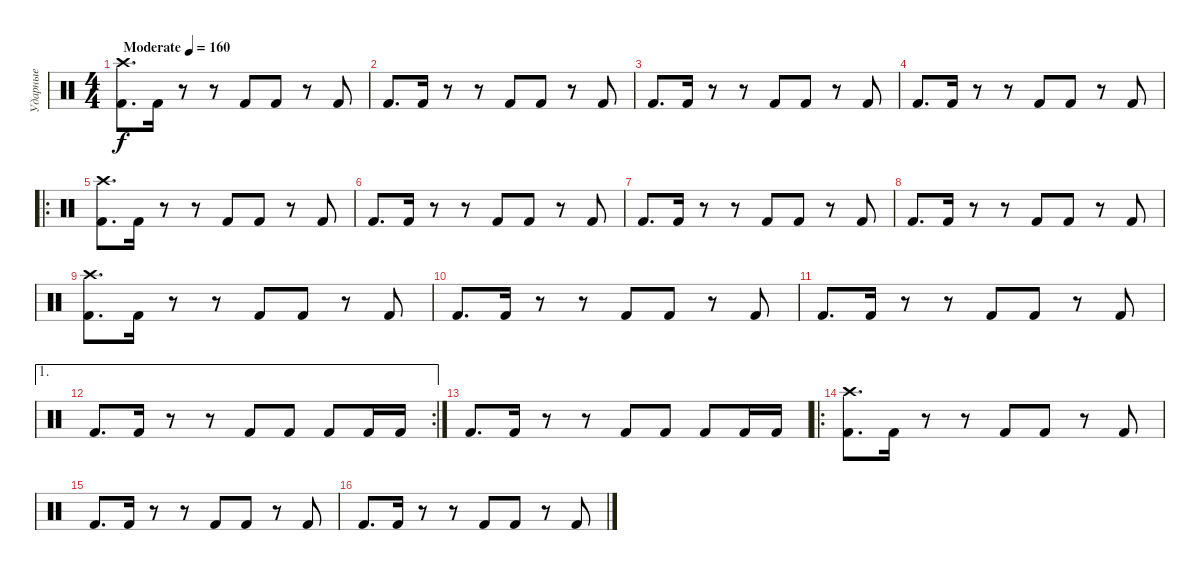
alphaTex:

\track ("Ударные" "Ударные") {instrument percussion}
\staff {score}
\articulation defaults
\ts (4 4)
\tempo (160 "Moderate")
\clef neutral
\ks c
("Kick (hit) 2" "Crash high (hit)").8{d dy f} "Kick (hit) 2".16 r.8 r.8 "Kick (hit) 2".8 "Kick (hit) 2".8 r.8 "Kick (hit) 2".8 |
"Kick (hit) 2".8{d} "Kick (hit) 2".16 r.8 r.8 "Kick (hit) 2".8 "Kick (hit) 2".8 r.8 "Kick (hit) 2".8 |
"Kick (hit) 2".8{d} "Kick (hit) 2".16 r.8 r.8 "Kick (hit) 2".8 "Kick (hit) 2".8 r.8 "Kick (hit) 2".8 |
"Kick (hit) 2".8{d} "Kick (hit) 2".16 r.8 r.8 "Kick (hit) 2".8 "Kick (hit) 2".8 r.8 "Kick (hit) 2".8 |
\ro
("Kick (hit) 2" "Crash high (hit)").8{d} "Kick (hit) 2".16 r.8 r.8 "Kick (hit) 2".8 "Kick (hit) 2".8 r.8 "Kick (hit) 2".8 |
"Kick (hit) 2".8{d} "Kick (hit) 2".16 r.8 r.8 "Kick (hit) 2".8 "Kick (hit) 2".8 r.8 "Kick (hit) 2".8 |
"Kick (hit) 2".8{d} "Kick (hit) 2".16 r.8 r.8 "Kick (hit) 2".8 "Kick (hit) 2".8 r.8 "Kick (hit) 2".8 |
"Kick (hit) 2".8{d} "Kick (hit) 2".16 r.8 r.8 "Kick (hit) 2".8 "Kick (hit) 2".8 r.8 "Kick (hit) 2".8 |
("Kick (hit) 2" "Crash high (hit)").8{d} "Kick (hit) 2".16 r.8 r.8 "Kick (hit) 2".8 "Kick (hit) 2".8 r.8 "Kick (hit) 2".8 |
"Kick (hit) 2".8{d} "Kick (hit) 2".16 r.8 r.8 "Kick (hit) 2".8 "Kick (hit) 2".8 r.8 "Kick (hit) 2".8 |
"Kick (hit) 2".8{d} "Kick (hit) 2".16 r.8 r.8 "Kick (hit) 2".8 "Kick (hit) 2".8 r.8 "Kick (hit) 2".8 |
\ae 1
\rc 2 "Kick (hit) 2".8{d} "Kick (hit) 2".16
r.8 r.8 "Kick (hit) 2".8 "Kick (hit) 2".8 "Kick (hit) 2".8 "Kick (hit) 2".16 "Kick (hit) 2".16 |
"Kick (hit) 2".8{d} "Kick (hit) 2".16 r.8 r.8 "Kick (hit) 2".8 "Kick (hit) 2".8 "Kick (hit) 2".8 "Kick (hit) 2".16 "Kick (hit) 2".16 |
\ro
("Kick (hit) 2" "Crash high (hit)").8{d} "Kick (hit) 2".16 r.8 r.8 "Kick (hit) 2".8 "Kick (hit) 2".8 r.8 "Kick (hit) 2".8 |
"Kick (hit) 2".8{d} "Kick (hit) 2".16 r.8 r.8 "Kick (hit) 2".8 "Kick (hit) 2".8 r.8 "Kick (hit) 2".8 |
"Kick (hit) 2".8{d} "Kick (hit) 2".16 r.8 r.8 "Kick (hit) 2".8 "Kick (hit) 2".8 r.8 "Kick (hit) 2".8
